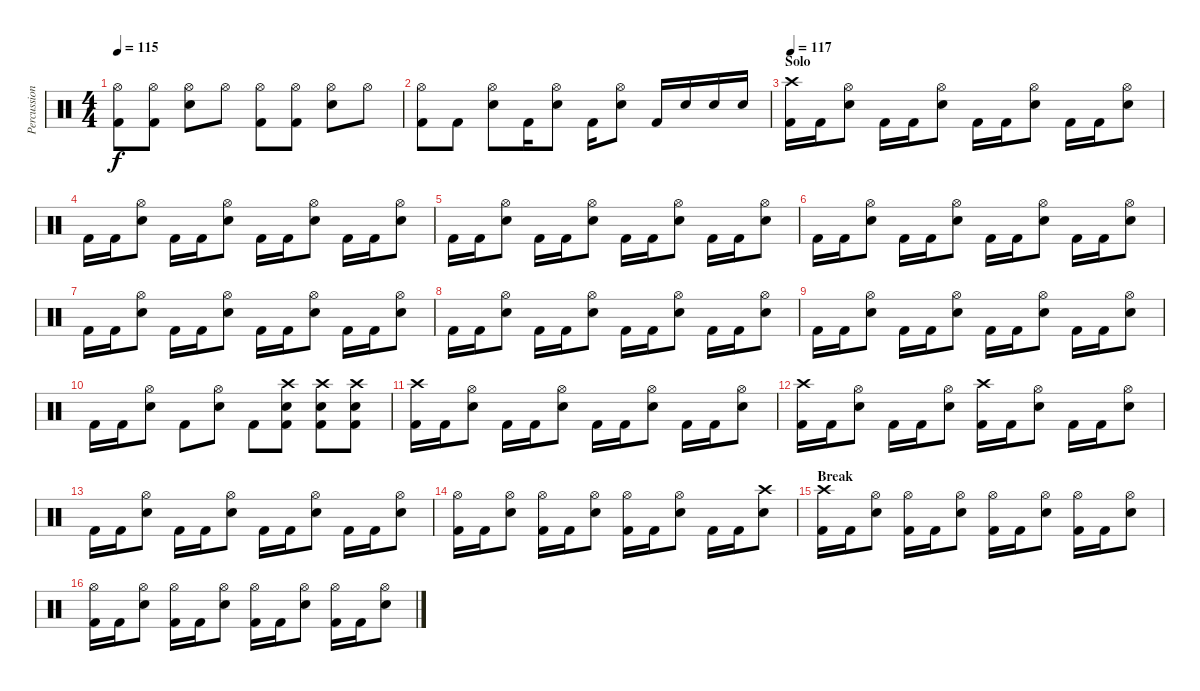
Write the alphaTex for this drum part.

\track ("Percussions" "Percussion") {instrument percussion}
\staff {score}
\articulation defaults
\ts (4 4)
\tempo 115
\clef neutral
\ks c
("Hi-Hat (open)" "Kick (hit) 2").8{dy f} ("Hi-Hat (open)" "Kick (hit) 2").8 ("Hi-Hat (open)" "Snare (hit) 2").8 "Hi-Hat (open)".8 ("Hi-Hat (open)" "Kick (hit) 2").8 ("Hi-Hat (open)" "Kick (hit) 2").8 ("Hi-Hat (open)" "Snare (hit) 2").8 "Hi-Hat (open)".8 |
("Hi-Hat (open)" "Kick (hit) 2").8 "Kick (hit) 2".8 ("Hi-Hat (open)" "Snare (hit) 2").8 "Kick (hit) 2".16 ("Hi-Hat (open)" "Snare (hit) 2").8 "Kick (hit) 2".16 ("Hi-Hat (open)" "Snare (hit) 2").8 "Kick (hit) 2".16 "Snare (hit) 2".16 "Snare (hit) 2".16 "Snare (hit) 2".16 |
\section ("" "Solo")
\tempo 117
("Crash high (hit)" "Kick (hit) 2").16 "Kick (hit) 2".16 ("Hi-Hat (open)" "Snare (hit) 2").8 "Kick (hit) 2".16 "Kick (hit) 2".16 ("Hi-Hat (open)" "Snare (hit) 2").8 "Kick (hit) 2".16 "Kick (hit) 2".16 ("Hi-Hat (open)" "Snare (hit) 2").8 "Kick (hit) 2".16 "Kick (hit) 2".16 ("Hi-Hat (open)" "Snare (hit) 2").8 |
"Kick (hit) 2".16 "Kick (hit) 2".16 ("Hi-Hat (open)" "Snare (hit) 2").8 "Kick (hit) 2".16 "Kick (hit) 2".16 ("Hi-Hat (open)" "Snare (hit) 2").8 "Kick (hit) 2".16 "Kick (hit) 2".16 ("Hi-Hat (open)" "Snare (hit) 2").8 "Kick (hit) 2".16 "Kick (hit) 2".16 ("Hi-Hat (open)" "Snare (hit) 2").8 |
"Kick (hit) 2".16 "Kick (hit) 2".16 ("Hi-Hat (open)" "Snare (hit) 2").8 "Kick (hit) 2".16 "Kick (hit) 2".16 ("Hi-Hat (open)" "Snare (hit) 2").8 "Kick (hit) 2".16 "Kick (hit) 2".16 ("Hi-Hat (open)" "Snare (hit) 2").8 "Kick (hit) 2".16 "Kick (hit) 2".16 ("Hi-Hat (open)" "Snare (hit) 2").8 |
"Kick (hit) 2".16 "Kick (hit) 2".16 ("Hi-Hat (open)" "Snare (hit) 2").8 "Kick (hit) 2".16 "Kick (hit) 2".16 ("Hi-Hat (open)" "Snare (hit) 2").8 "Kick (hit) 2".16 "Kick (hit) 2".16 ("Hi-Hat (open)" "Snare (hit) 2").8 "Kick (hit) 2".16 "Kick (hit) 2".16 ("Hi-Hat (open)" "Snare (hit) 2").8 |
"Kick (hit) 2".16 "Kick (hit) 2".16 ("Hi-Hat (open)" "Snare (hit) 2").8 "Kick (hit) 2".16 "Kick (hit) 2".16 ("Hi-Hat (open)" "Snare (hit) 2").8 "Kick (hit) 2".16 "Kick (hit) 2".16 ("Hi-Hat (open)" "Snare (hit) 2").8 "Kick (hit) 2".16 "Kick (hit) 2".16 ("Hi-Hat (open)" "Snare (hit) 2").8 |
"Kick (hit) 2".16 "Kick (hit) 2".16 ("Hi-Hat (open)" "Snare (hit) 2").8 "Kick (hit) 2".16 "Kick (hit) 2".16 ("Hi-Hat (open)" "Snare (hit) 2").8 "Kick (hit) 2".16 "Kick (hit) 2".16 ("Hi-Hat (open)" "Snare (hit) 2").8 "Kick (hit) 2".16 "Kick (hit) 2".16 ("Hi-Hat (open)" "Snare (hit) 2").8 |
"Kick (hit) 2".16 "Kick (hit) 2".16 ("Hi-Hat (open)" "Snare (hit) 2").8 "Kick (hit) 2".16 "Kick (hit) 2".16 ("Hi-Hat (open)" "Snare (hit) 2").8 "Kick (hit) 2".16 "Kick (hit) 2".16 ("Hi-Hat (open)" "Snare (hit) 2").8 "Kick (hit) 2".16 "Kick (hit) 2".16 ("Hi-Hat (open)" "Snare (hit) 2").8 |
"Kick (hit) 2".16 "Kick (hit) 2".16 ("Hi-Hat (open)" "Snare (hit) 2").8 "Kick (hit) 2".8 ("Hi-Hat (open)" "Snare (hit) 2").8 "Kick (hit) 2".8 ("Crash high (hit)" "Snare (hit) 2" "Kick (hit) 2").8 ("Crash high (hit)" "Snare (hit) 2" "Kick (hit) 2").8 ("Crash high (hit)" "Snare (hit) 2" "Kick (hit) 2").8 |
("Crash high (hit)" "Kick (hit) 2").16 "Kick (hit) 2".16 ("Hi-Hat (open)" "Snare (hit) 2").8 "Kick (hit) 2".16 "Kick (hit) 2".16 ("Hi-Hat (open)" "Snare (hit) 2").8 "Kick (hit) 2".16 "Kick (hit) 2".16 ("Hi-Hat (open)" "Snare (hit) 2").8 "Kick (hit) 2".16 "Kick (hit) 2".16 ("Hi-Hat (open)" "Snare (hit) 2").8 |
("Crash high (hit)" "Kick (hit) 2").16 "Kick (hit) 2".16 ("Hi-Hat (open)" "Snare (hit) 2").8 "Kick (hit) 2".16 "Kick (hit) 2".16 ("Hi-Hat (open)" "Snare (hit) 2").8 ("Crash high (hit)" "Kick (hit) 2").16 "Kick (hit) 2".16 ("Hi-Hat (open)" "Snare (hit) 2").8 "Kick (hit) 2".16 "Kick (hit) 2".16 ("Hi-Hat (open)" "Snare (hit) 2").8 |
"Kick (hit) 2".16 "Kick (hit) 2".16 ("Hi-Hat (open)" "Snare (hit) 2").8 "Kick (hit) 2".16 "Kick (hit) 2".16 ("Hi-Hat (open)" "Snare (hit) 2").8 "Kick (hit) 2".16 "Kick (hit) 2".16 ("Hi-Hat (open)" "Snare (hit) 2").8 "Kick (hit) 2".16 "Kick (hit) 2".16 ("Hi-Hat (open)" "Snare (hit) 2").8 |
("Hi-Hat (open)" "Kick (hit) 2").16 "Kick (hit) 2".16 ("Hi-Hat (open)" "Snare (hit) 2").8 ("Hi-Hat (open)" "Kick (hit) 2").16 "Kick (hit) 2".16 ("Hi-Hat (open)" "Snare (hit) 2").8 ("Hi-Hat (open)" "Kick (hit) 2").16 "Kick (hit) 2".16 ("Hi-Hat (open)" "Snare (hit) 2").8 "Kick (hit) 2".16 "Kick (hit) 2".16 ("Crash high (hit)" "Snare (hit) 2").8 |
\section ("" "Break")
("Crash high (hit)" "Kick (hit) 2").16 "Kick (hit) 2".16 ("Hi-Hat (open)" "Snare (hit) 2").8 ("Hi-Hat (open)" "Kick (hit) 2").16 "Kick (hit) 2".16 ("Hi-Hat (open)" "Snare (hit) 2").8 ("Hi-Hat (open)" "Kick (hit) 2").16 "Kick (hit) 2".16 ("Hi-Hat (open)" "Snare (hit) 2").8 ("Hi-Hat (open)" "Kick (hit) 2").16 "Kick (hit) 2".16 ("Hi-Hat (open)" "Snare (hit) 2").8 |
("Hi-Hat (open)" "Kick (hit) 2").16 "Kick (hit) 2".16 ("Hi-Hat (open)" "Snare (hit) 2").8 ("Hi-Hat (open)" "Kick (hit) 2").16 "Kick (hit) 2".16 ("Hi-Hat (open)" "Snare (hit) 2").8 ("Hi-Hat (open)" "Kick (hit) 2").16 "Kick (hit) 2".16 ("Hi-Hat (open)" "Snare (hit) 2").8 ("Hi-Hat (open)" "Kick (hit) 2").16 "Kick (hit) 2".16 ("Hi-Hat (open)" "Snare (hit) 2").8
